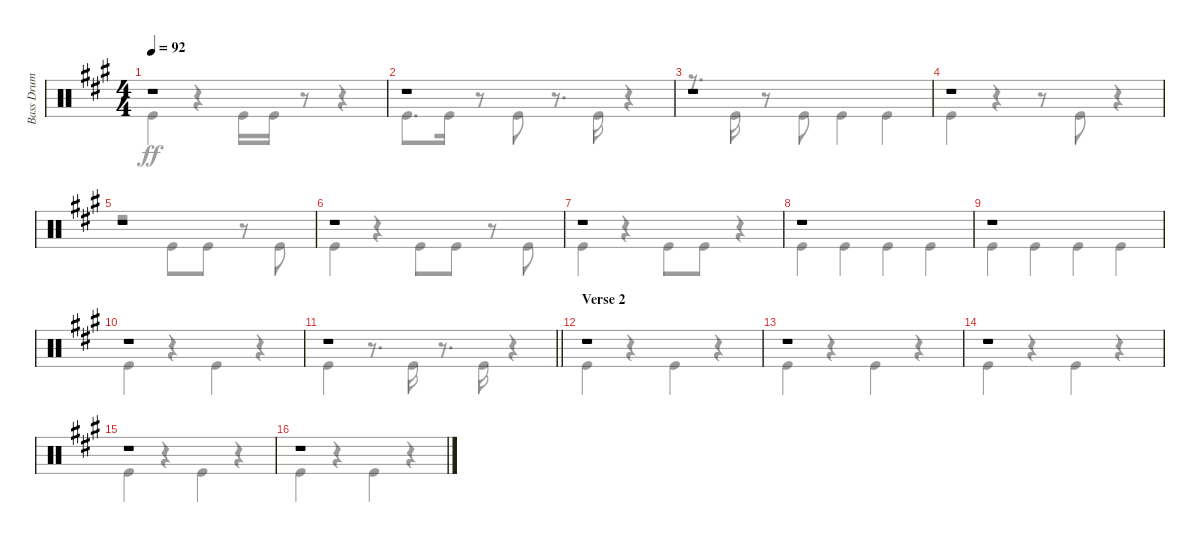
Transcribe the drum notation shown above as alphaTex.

\track ("Bass Drum" "Bass Drum") {instrument percussion}
\staff {score}
\articulation defaults
\voice
\ts (4 4)
\tempo 92
\clef neutral
\ks f#minor
r.1{dy f} |
r.1 |
r.1 |
r.1 |
r.1 |
r.1 |
r.1 |
r.1 |
r.1 |
r.1 |
\barLineRight lightlight
r.1 |
\section ("" "Verse 2")
r.1 |
r.1 |
r.1 |
r.1 |
r.1
\voice
\clef neutral
\ottava regular
\simile none
\ks f#minor "Kick (hit)".4{dy ff}
r.4 "Kick (hit)".16 "Kick (hit)".16 r.8 r.4 |
"Kick (hit)".8{d} "Kick (hit)".16 r.8 "Kick (hit)".8 r.8{d} "Kick (hit)".16 r.4 |
r.8{d} "Kick (hit)".16 r.8 "Kick (hit)".8 "Kick (hit)".4 "Kick (hit)".4 |
"Kick (hit)".4 r.4 r.8 "Kick (hit)".8 r.4 |
r.2 "Kick (hit)".8 "Kick (hit)".8 r.8 "Kick (hit)".8 |
"Kick (hit)".4 r.4 "Kick (hit)".8 "Kick (hit)".8 r.8 "Kick (hit)".8 |
"Kick (hit)".4 r.4 "Kick (hit)".8 "Kick (hit)".8 r.4 |
"Kick (hit)".4 "Kick (hit)".4 "Kick (hit)".4 "Kick (hit)".4 |
"Kick (hit)".4 "Kick (hit)".4 "Kick (hit)".4 "Kick (hit)".4 |
"Kick (hit)".4 r.4 "Kick (hit)".4 r.4 |
\barLineRight lightlight "Kick (hit)".4
r.8{d} "Kick (hit)".16 r.8{d} "Kick (hit)".16 r.4 |
"Kick (hit)".4 r.4 "Kick (hit)".4 r.4 |
"Kick (hit)".4 r.4 "Kick (hit)".4 r.4 |
"Kick (hit)".4 r.4 "Kick (hit)".4 r.4 |
"Kick (hit)".4 r.4 "Kick (hit)".4 r.4 |
"Kick (hit)".4 r.4 "Kick (hit)".4 r.4
